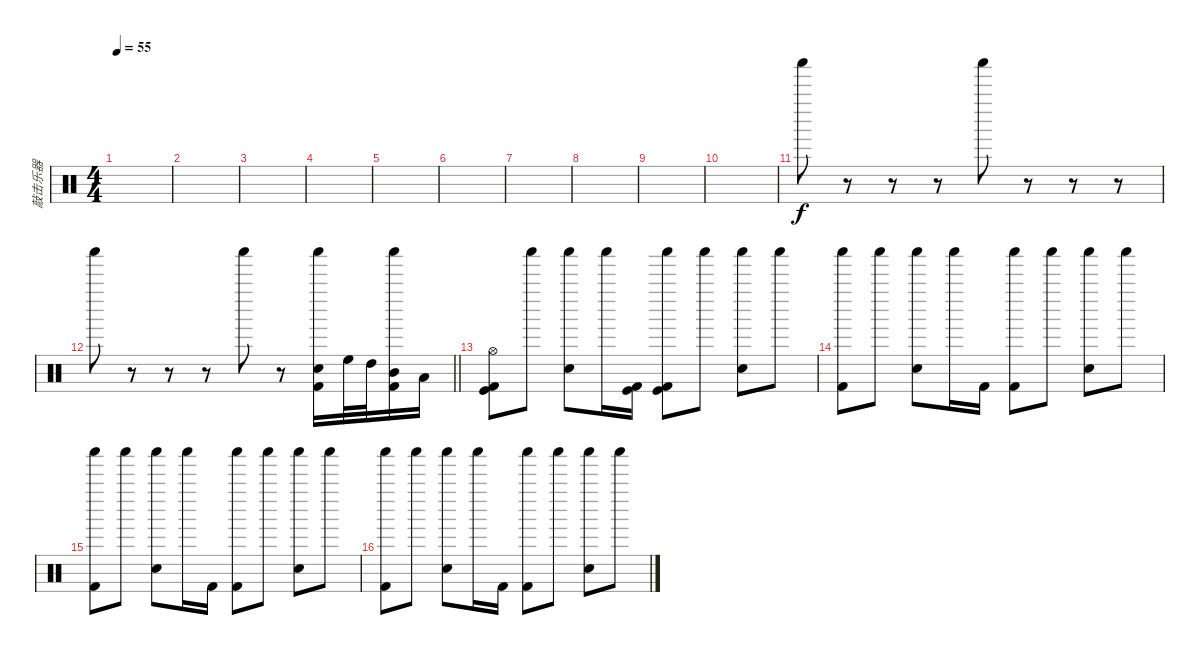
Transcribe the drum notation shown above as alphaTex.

\track ("敲击乐器" "敲击乐器") {instrument percussion}
\staff {score}
\articulation defaults
\ts (4 4)
\tempo 55
\clef neutral
\ks c
|
|
|
|
|
|
|
|
|
|
"Shaker (hit)".8 r.8 r.8 r.8 "Shaker (hit)".8 r.8 r.8 r.8 |
\barLineRight lightlight "Shaker (hit)".8
r.8 r.8 r.8 "Shaker (hit)".8 r.8 ("Shaker (hit)" "Snare (hit) 2" "Kick (hit) 2").16 "High Floor Tom (hit)".32 "High Tom (hit)".32 ("Shaker (hit)" "Mid Tom (hit)" "Kick (hit) 2").16 "Low Tom (hit)".16 |
("Hi-Hat (open)" "Kick (hit) 2" "Kick (hit)").8 "Shaker (hit)".8 ("Shaker (hit)" "Snare (hit) 2").8 "Shaker (hit)".16 ("Kick (hit) 2" "Kick (hit)").16 ("Shaker (hit)" "Kick (hit) 2" "Kick (hit)").8 "Shaker (hit)".8 ("Shaker (hit)" "Snare (hit) 2").8 "Shaker (hit)".8 |
("Shaker (hit)" "Kick (hit) 2").8 "Shaker (hit)".8 ("Shaker (hit)" "Snare (hit) 2").8 "Shaker (hit)".16 "Kick (hit) 2".16 ("Shaker (hit)" "Kick (hit) 2").8 "Shaker (hit)".8 ("Shaker (hit)" "Snare (hit) 2").8 "Shaker (hit)".8 |
("Shaker (hit)" "Kick (hit) 2").8 "Shaker (hit)".8 ("Shaker (hit)" "Snare (hit) 2").8 "Shaker (hit)".16 "Kick (hit) 2".16 ("Shaker (hit)" "Kick (hit) 2").8 "Shaker (hit)".8 ("Shaker (hit)" "Snare (hit) 2").8 "Shaker (hit)".8 |
("Shaker (hit)" "Kick (hit) 2").8 "Shaker (hit)".8 ("Shaker (hit)" "Snare (hit) 2").8 "Shaker (hit)".16 "Kick (hit) 2".16 ("Shaker (hit)" "Kick (hit) 2").8 "Shaker (hit)".8 ("Shaker (hit)" "Snare (hit) 2").8 "Shaker (hit)".8
